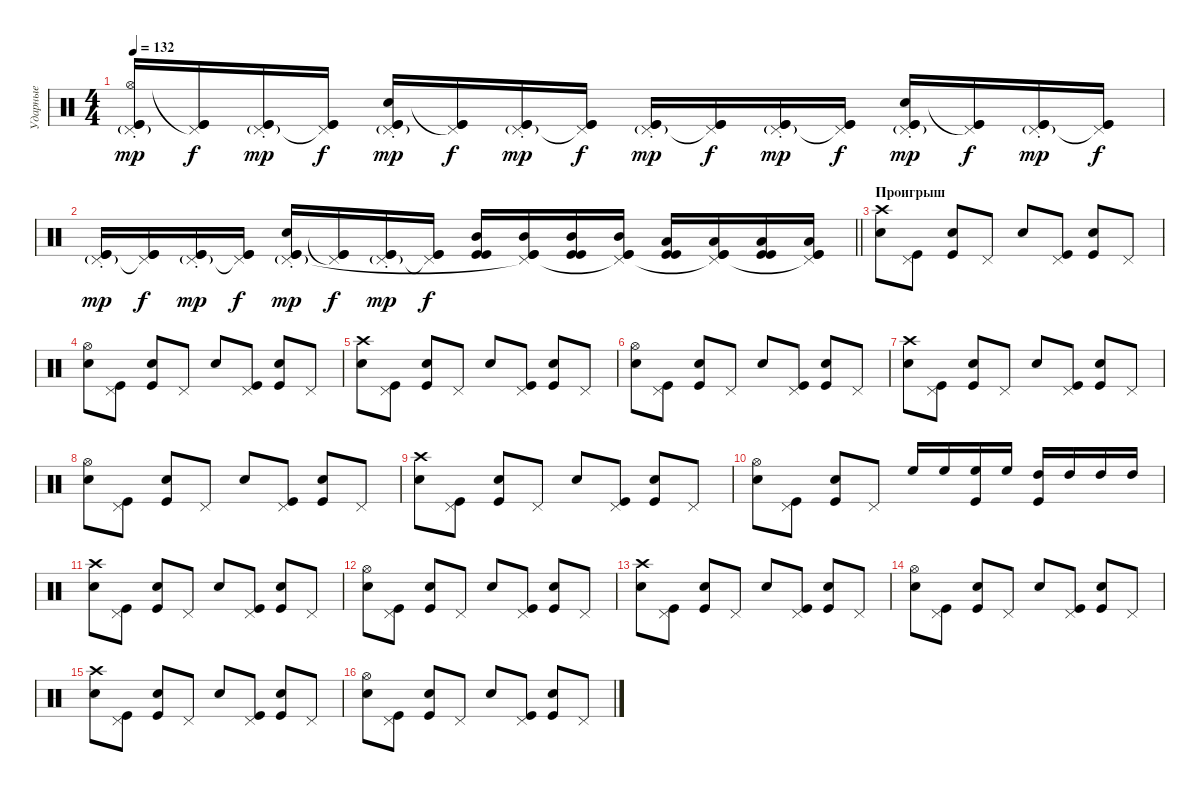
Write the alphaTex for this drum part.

\track ("Ударные" "Ударные") {instrument percussion}
\staff {score}
\articulation defaults
\ts (4 4)
\tempo 132
\clef neutral
\ks c
("Kick (hit)" "Kick (hit)" "Hi-Hat (open)" "Pedal Hi-Hat (hit)"{g st}).16{dy mp} ("Kick (hit)" "Kick (hit)" "Pedal Hi-Hat (hit)"{t}).16{dy f} ("Kick (hit)" "Kick (hit)" "Pedal Hi-Hat (hit)"{g st}).16{dy mp} ("Kick (hit)" "Kick (hit)" "Pedal Hi-Hat (hit)"{t}).16{dy f} ("Kick (hit)" "Kick (hit)" "Electric Snare (hit)" "Pedal Hi-Hat (hit)"{g st}).16{dy mp} ("Kick (hit)" "Kick (hit)" "Pedal Hi-Hat (hit)"{t}).16{dy f} ("Kick (hit)" "Kick (hit)" "Pedal Hi-Hat (hit)"{g st}).16{dy mp} ("Kick (hit)" "Kick (hit)" "Pedal Hi-Hat (hit)"{t}).16{dy f} ("Kick (hit)" "Kick (hit)" "Pedal Hi-Hat (hit)"{g st}).16{dy mp} ("Kick (hit)" "Kick (hit)" "Pedal Hi-Hat (hit)"{t}).16{dy f} ("Kick (hit)" "Kick (hit)" "Pedal Hi-Hat (hit)"{g st}).16{dy mp} ("Kick (hit)" "Kick (hit)" "Pedal Hi-Hat (hit)"{t}).16{dy f} ("Kick (hit)" "Kick (hit)" "Electric Snare (hit)" "Pedal Hi-Hat (hit)"{g st}).16{dy mp} ("Kick (hit)" "Kick (hit)" "Pedal Hi-Hat (hit)"{t}).16{dy f} ("Kick (hit)" "Kick (hit)" "Pedal Hi-Hat (hit)"{g st}).16{dy mp} ("Kick (hit)" "Kick (hit)" "Pedal Hi-Hat (hit)"{t}).16{dy f} |
\barLineRight lightlight
("Kick (hit)" "Kick (hit)" "Pedal Hi-Hat (hit)"{g st}).16{dy mp} ("Kick (hit)" "Kick (hit)" "Pedal Hi-Hat (hit)"{t}).16{dy f} ("Kick (hit)" "Kick (hit)" "Pedal Hi-Hat (hit)"{g st}).16{dy mp} ("Kick (hit)" "Kick (hit)" "Pedal Hi-Hat (hit)"{t}).16{dy f} ("Kick (hit)" "Kick (hit)" "Electric Snare (hit)" "Pedal Hi-Hat (hit)"{g st}).16{dy mp} ("Kick (hit)" "Kick (hit)" "Pedal Hi-Hat (hit)"{t}).16{dy f} ("Kick (hit)" "Kick (hit)" "Pedal Hi-Hat (hit)"{g st}).16{dy mp} ("Kick (hit)" "Kick (hit)" "Pedal Hi-Hat (hit)"{t}).16{dy f} ("Kick (hit)" "Kick (hit)" "Mid Tom (hit)").16 ("Kick (hit)" "Kick (hit)" "Mid Tom (hit)" "Pedal Hi-Hat (hit)"{t}).16 ("Kick (hit)" "Kick (hit)" "Mid Tom (hit)").16 ("Kick (hit)" "Kick (hit)" "Mid Tom (hit)" "Pedal Hi-Hat (hit)"{t}).16 ("Kick (hit)" "Kick (hit)" "Low Tom (hit)").16 ("Kick (hit)" "Kick (hit)" "Low Tom (hit)" "Pedal Hi-Hat (hit)"{t}).16 ("Kick (hit)" "Kick (hit)" "Low Tom (hit)").16 ("Kick (hit)" "Kick (hit)" "Low Tom (hit)" "Pedal Hi-Hat (hit)"{t}).16 |
\section ("" "Проигрыш")
("Crash high (hit)" "Snare (hit) 2").8 ("Pedal Hi-Hat (hit)" "Kick (hit)").8 ("Snare (hit) 2" "Kick (hit)").8 "Pedal Hi-Hat (hit)".8 "Snare (hit) 2".8 ("Pedal Hi-Hat (hit)" "Kick (hit)").8 ("Snare (hit) 2" "Kick (hit)").8 "Pedal Hi-Hat (hit)".8 |
("Hi-Hat (open)" "Snare (hit) 2").8 ("Pedal Hi-Hat (hit)" "Kick (hit)").8 ("Snare (hit) 2" "Kick (hit)").8 "Pedal Hi-Hat (hit)".8 "Snare (hit) 2".8 ("Pedal Hi-Hat (hit)" "Kick (hit)").8 ("Snare (hit) 2" "Kick (hit)").8 "Pedal Hi-Hat (hit)".8 |
("Crash high (hit)" "Snare (hit) 2").8 ("Pedal Hi-Hat (hit)" "Kick (hit)").8 ("Snare (hit) 2" "Kick (hit)").8 "Pedal Hi-Hat (hit)".8 "Snare (hit) 2".8 ("Pedal Hi-Hat (hit)" "Kick (hit)").8 ("Snare (hit) 2" "Kick (hit)").8 "Pedal Hi-Hat (hit)".8 |
("Hi-Hat (open)" "Snare (hit) 2").8 ("Pedal Hi-Hat (hit)" "Kick (hit)").8 ("Snare (hit) 2" "Kick (hit)").8 "Pedal Hi-Hat (hit)".8 "Snare (hit) 2".8 ("Pedal Hi-Hat (hit)" "Kick (hit)").8 ("Snare (hit) 2" "Kick (hit)").8 "Pedal Hi-Hat (hit)".8 |
("Crash high (hit)" "Snare (hit) 2").8 ("Pedal Hi-Hat (hit)" "Kick (hit)").8 ("Snare (hit) 2" "Kick (hit)").8 "Pedal Hi-Hat (hit)".8 "Snare (hit) 2".8 ("Pedal Hi-Hat (hit)" "Kick (hit)").8 ("Snare (hit) 2" "Kick (hit)").8 "Pedal Hi-Hat (hit)".8 |
("Hi-Hat (open)" "Snare (hit) 2").8 ("Pedal Hi-Hat (hit)" "Kick (hit)").8 ("Snare (hit) 2" "Kick (hit)").8 "Pedal Hi-Hat (hit)".8 "Snare (hit) 2".8 ("Pedal Hi-Hat (hit)" "Kick (hit)").8 ("Snare (hit) 2" "Kick (hit)").8 "Pedal Hi-Hat (hit)".8 |
("Crash high (hit)" "Snare (hit) 2").8 ("Pedal Hi-Hat (hit)" "Kick (hit)").8 ("Snare (hit) 2" "Kick (hit)").8 "Pedal Hi-Hat (hit)".8 "Snare (hit) 2".8 ("Pedal Hi-Hat (hit)" "Kick (hit)").8 ("Snare (hit) 2" "Kick (hit)").8 "Pedal Hi-Hat (hit)".8 |
("Hi-Hat (open)" "Snare (hit) 2").8 ("Pedal Hi-Hat (hit)" "Kick (hit)").8 ("Snare (hit) 2" "Kick (hit)").8 "Pedal Hi-Hat (hit)".8 "High Floor Tom (hit)".16 "High Floor Tom (hit)".16 ("High Floor Tom (hit)" "Kick (hit)").16 "High Floor Tom (hit)".16 ("High Tom (hit)" "Kick (hit)").16 "High Tom (hit)".16 "High Tom (hit)".16 "High Tom (hit)".16 |
("Crash high (hit)" "Snare (hit) 2").8 ("Pedal Hi-Hat (hit)" "Kick (hit)").8 ("Snare (hit) 2" "Kick (hit)").8 "Pedal Hi-Hat (hit)".8 "Snare (hit) 2".8 ("Pedal Hi-Hat (hit)" "Kick (hit)").8 ("Snare (hit) 2" "Kick (hit)").8 "Pedal Hi-Hat (hit)".8 |
("Hi-Hat (open)" "Snare (hit) 2").8 ("Pedal Hi-Hat (hit)" "Kick (hit)").8 ("Snare (hit) 2" "Kick (hit)").8 "Pedal Hi-Hat (hit)".8 "Snare (hit) 2".8 ("Pedal Hi-Hat (hit)" "Kick (hit)").8 ("Snare (hit) 2" "Kick (hit)").8 "Pedal Hi-Hat (hit)".8 |
("Crash high (hit)" "Snare (hit) 2").8 ("Pedal Hi-Hat (hit)" "Kick (hit)").8 ("Snare (hit) 2" "Kick (hit)").8 "Pedal Hi-Hat (hit)".8 "Snare (hit) 2".8 ("Pedal Hi-Hat (hit)" "Kick (hit)").8 ("Snare (hit) 2" "Kick (hit)").8 "Pedal Hi-Hat (hit)".8 |
("Hi-Hat (open)" "Snare (hit) 2").8 ("Pedal Hi-Hat (hit)" "Kick (hit)").8 ("Snare (hit) 2" "Kick (hit)").8 "Pedal Hi-Hat (hit)".8 "Snare (hit) 2".8 ("Pedal Hi-Hat (hit)" "Kick (hit)").8 ("Snare (hit) 2" "Kick (hit)").8 "Pedal Hi-Hat (hit)".8 |
("Crash high (hit)" "Snare (hit) 2").8 ("Pedal Hi-Hat (hit)" "Kick (hit)").8 ("Snare (hit) 2" "Kick (hit)").8 "Pedal Hi-Hat (hit)".8 "Snare (hit) 2".8 ("Pedal Hi-Hat (hit)" "Kick (hit)").8 ("Snare (hit) 2" "Kick (hit)").8 "Pedal Hi-Hat (hit)".8 |
("Hi-Hat (open)" "Snare (hit) 2").8 ("Pedal Hi-Hat (hit)" "Kick (hit)").8 ("Snare (hit) 2" "Kick (hit)").8 "Pedal Hi-Hat (hit)".8 "Snare (hit) 2".8 ("Pedal Hi-Hat (hit)" "Kick (hit)").8 ("Snare (hit) 2" "Kick (hit)").8 "Pedal Hi-Hat (hit)".8
